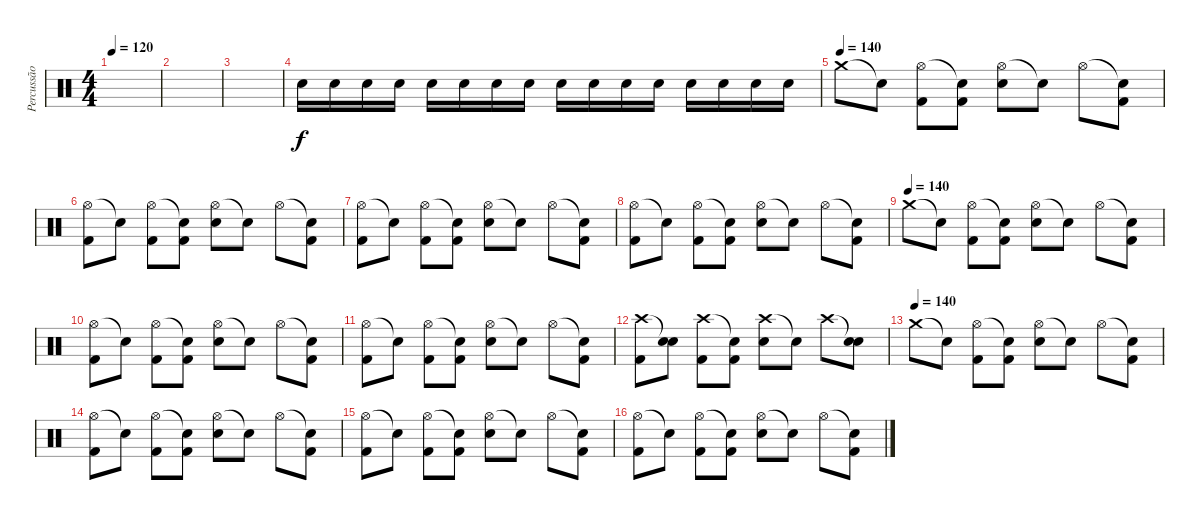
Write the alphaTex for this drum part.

\track ("Percussão" "Percussão") {instrument percussion}
\staff {score}
\articulation defaults
\ts (4 4)
\tempo 120
\tempo 140
\tempo 120
\clef neutral
\ks c
|
|
|
"Electric Snare (hit)".16 "Electric Snare (hit)".16 "Electric Snare (hit)".16 "Electric Snare (hit)".16 "Electric Snare (hit)".16 "Electric Snare (hit)".16 "Electric Snare (hit)".16 "Electric Snare (hit)".16 "Electric Snare (hit)".16 "Electric Snare (hit)".16 "Electric Snare (hit)".16 "Electric Snare (hit)".16 "Electric Snare (hit)".16 "Electric Snare (hit)".16 "Electric Snare (hit)".16 "Electric Snare (hit)".16 |
\tempo (140)
"Crash medium (hit)".8 "Snare (hit)"{t}.8 ("Hi-Hat (open)" "Kick (hit) 2").8 ("Snare (hit)"{t} "Kick (hit) 2").8 ("Hi-Hat (open)" "Electric Snare (hit)").8 "Snare (hit)"{t}.8 "Hi-Hat (open)".8 ("Snare (hit)"{t} "Kick (hit) 2").8 |
("Hi-Hat (open)" "Kick (hit) 2").8 "Snare (hit)"{t}.8 ("Hi-Hat (open)" "Kick (hit) 2").8 ("Snare (hit)"{t} "Kick (hit) 2").8 ("Hi-Hat (open)" "Electric Snare (hit)").8 "Snare (hit)"{t}.8 "Hi-Hat (open)".8 ("Snare (hit)"{t} "Kick (hit) 2").8 |
("Hi-Hat (open)" "Kick (hit) 2").8 "Snare (hit)"{t}.8 ("Hi-Hat (open)" "Kick (hit) 2").8 ("Snare (hit)"{t} "Kick (hit) 2").8 ("Hi-Hat (open)" "Electric Snare (hit)").8 "Snare (hit)"{t}.8 "Hi-Hat (open)".8 ("Snare (hit)"{t} "Kick (hit) 2").8 |
("Hi-Hat (open)" "Kick (hit) 2").8 "Snare (hit)"{t}.8 ("Hi-Hat (open)" "Kick (hit) 2").8 ("Snare (hit)"{t} "Kick (hit) 2").8 ("Hi-Hat (open)" "Electric Snare (hit)").8 "Snare (hit)"{t}.8 "Hi-Hat (open)".8 ("Snare (hit)"{t} "Kick (hit) 2").8 |
\tempo (140)
"Crash medium (hit)".8 "Snare (hit)"{t}.8 ("Hi-Hat (open)" "Kick (hit) 2").8 ("Snare (hit)"{t} "Kick (hit) 2").8 ("Hi-Hat (open)" "Electric Snare (hit)").8 "Snare (hit)"{t}.8 "Hi-Hat (open)".8 ("Snare (hit)"{t} "Kick (hit) 2").8 |
("Hi-Hat (open)" "Kick (hit) 2").8 "Snare (hit)"{t}.8 ("Hi-Hat (open)" "Kick (hit) 2").8 ("Snare (hit)"{t} "Kick (hit) 2").8 ("Hi-Hat (open)" "Electric Snare (hit)").8 "Snare (hit)"{t}.8 "Hi-Hat (open)".8 ("Snare (hit)"{t} "Kick (hit) 2").8 |
("Hi-Hat (open)" "Kick (hit) 2").8 "Snare (hit)"{t}.8 ("Hi-Hat (open)" "Kick (hit) 2").8 ("Snare (hit)"{t} "Kick (hit) 2").8 ("Hi-Hat (open)" "Electric Snare (hit)").8 "Snare (hit)"{t}.8 "Hi-Hat (open)".8 ("Snare (hit)"{t} "Kick (hit) 2").8 |
("Crash high (hit)" "Kick (hit) 2").8 ("Snare (hit)"{t} "Electric Snare (hit)").8 ("Crash high (hit)" "Kick (hit) 2").8 ("Snare (hit)"{t} "Kick (hit) 2").8 ("Crash high (hit)" "Electric Snare (hit)").8 "Snare (hit)"{t}.8 "Crash high (hit)".8 ("Snare (hit)"{t} "Electric Snare (hit)").8 |
\tempo (140)
"Crash medium (hit)".8 "Snare (hit)"{t}.8 ("Hi-Hat (open)" "Kick (hit) 2").8 ("Snare (hit)"{t} "Kick (hit) 2").8 ("Hi-Hat (open)" "Electric Snare (hit)").8 "Snare (hit)"{t}.8 "Hi-Hat (open)".8 ("Snare (hit)"{t} "Kick (hit) 2").8 |
("Hi-Hat (open)" "Kick (hit) 2").8 "Snare (hit)"{t}.8 ("Hi-Hat (open)" "Kick (hit) 2").8 ("Snare (hit)"{t} "Kick (hit) 2").8 ("Hi-Hat (open)" "Electric Snare (hit)").8 "Snare (hit)"{t}.8 "Hi-Hat (open)".8 ("Snare (hit)"{t} "Kick (hit) 2").8 |
("Hi-Hat (open)" "Kick (hit) 2").8 "Snare (hit)"{t}.8 ("Hi-Hat (open)" "Kick (hit) 2").8 ("Snare (hit)"{t} "Kick (hit) 2").8 ("Hi-Hat (open)" "Electric Snare (hit)").8 "Snare (hit)"{t}.8 "Hi-Hat (open)".8 ("Snare (hit)"{t} "Kick (hit) 2").8 |
("Hi-Hat (open)" "Kick (hit) 2").8 "Snare (hit)"{t}.8 ("Hi-Hat (open)" "Kick (hit) 2").8 ("Snare (hit)"{t} "Kick (hit) 2").8 ("Hi-Hat (open)" "Electric Snare (hit)").8 "Snare (hit)"{t}.8 "Hi-Hat (open)".8 ("Snare (hit)"{t} "Kick (hit) 2").8
